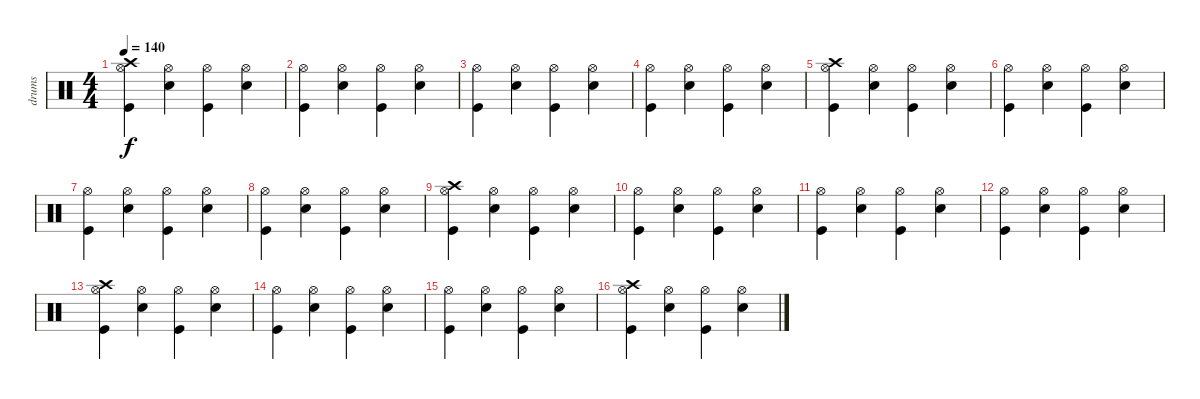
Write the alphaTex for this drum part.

\track ("drums" "drums") {instrument percussion}
\staff {score}
\articulation defaults
\ts (4 4)
\tempo 140
\clef neutral
\ks c
("Hi-Hat (open)" "Kick (hit)" "Crash high (hit)").4{dy f} ("Hi-Hat (open)" "Snare (hit) 2").4 ("Hi-Hat (open)" "Kick (hit)").4 ("Hi-Hat (open)" "Snare (hit) 2").4 |
("Hi-Hat (open)" "Kick (hit)").4 ("Hi-Hat (open)" "Snare (hit) 2").4 ("Hi-Hat (open)" "Kick (hit)").4 ("Hi-Hat (open)" "Snare (hit) 2").4 |
("Hi-Hat (open)" "Kick (hit)").4 ("Hi-Hat (open)" "Snare (hit) 2").4 ("Hi-Hat (open)" "Kick (hit)").4 ("Hi-Hat (open)" "Snare (hit) 2").4 |
("Hi-Hat (open)" "Kick (hit)").4 ("Hi-Hat (open)" "Snare (hit) 2").4 ("Hi-Hat (open)" "Kick (hit)").4 ("Hi-Hat (open)" "Snare (hit) 2").4 |
("Hi-Hat (open)" "Kick (hit)" "Crash high (hit)").4 ("Hi-Hat (open)" "Snare (hit) 2").4 ("Hi-Hat (open)" "Kick (hit)").4 ("Hi-Hat (open)" "Snare (hit) 2").4 |
("Hi-Hat (open)" "Kick (hit)").4 ("Hi-Hat (open)" "Snare (hit) 2").4 ("Hi-Hat (open)" "Kick (hit)").4 ("Hi-Hat (open)" "Snare (hit) 2").4 |
("Hi-Hat (open)" "Kick (hit)").4 ("Hi-Hat (open)" "Snare (hit) 2").4 ("Hi-Hat (open)" "Kick (hit)").4 ("Hi-Hat (open)" "Snare (hit) 2").4 |
("Hi-Hat (open)" "Kick (hit)").4 ("Hi-Hat (open)" "Snare (hit) 2").4 ("Hi-Hat (open)" "Kick (hit)").4 ("Hi-Hat (open)" "Snare (hit) 2").4 |
("Hi-Hat (open)" "Kick (hit)" "Crash high (hit)").4 ("Hi-Hat (open)" "Snare (hit) 2").4 ("Hi-Hat (open)" "Kick (hit)").4 ("Hi-Hat (open)" "Snare (hit) 2").4 |
("Hi-Hat (open)" "Kick (hit)").4 ("Hi-Hat (open)" "Snare (hit) 2").4 ("Hi-Hat (open)" "Kick (hit)").4 ("Hi-Hat (open)" "Snare (hit) 2").4 |
("Hi-Hat (open)" "Kick (hit)").4 ("Hi-Hat (open)" "Snare (hit) 2").4 ("Hi-Hat (open)" "Kick (hit)").4 ("Hi-Hat (open)" "Snare (hit) 2").4 |
("Hi-Hat (open)" "Kick (hit)").4 ("Hi-Hat (open)" "Snare (hit) 2").4 ("Hi-Hat (open)" "Kick (hit)").4 ("Hi-Hat (open)" "Snare (hit) 2").4 |
("Hi-Hat (open)" "Kick (hit)" "Crash high (hit)").4 ("Hi-Hat (open)" "Snare (hit) 2").4 ("Hi-Hat (open)" "Kick (hit)").4 ("Hi-Hat (open)" "Snare (hit) 2").4 |
("Hi-Hat (open)" "Kick (hit)").4 ("Hi-Hat (open)" "Snare (hit) 2").4 ("Hi-Hat (open)" "Kick (hit)").4 ("Hi-Hat (open)" "Snare (hit) 2").4 |
("Hi-Hat (open)" "Kick (hit)").4 ("Hi-Hat (open)" "Snare (hit) 2").4 ("Hi-Hat (open)" "Kick (hit)").4 ("Hi-Hat (open)" "Snare (hit) 2").4 |
("Hi-Hat (open)" "Kick (hit)" "Crash high (hit)").4 ("Hi-Hat (open)" "Snare (hit) 2").4 ("Hi-Hat (open)" "Kick (hit)").4 ("Hi-Hat (open)" "Snare (hit) 2").4
